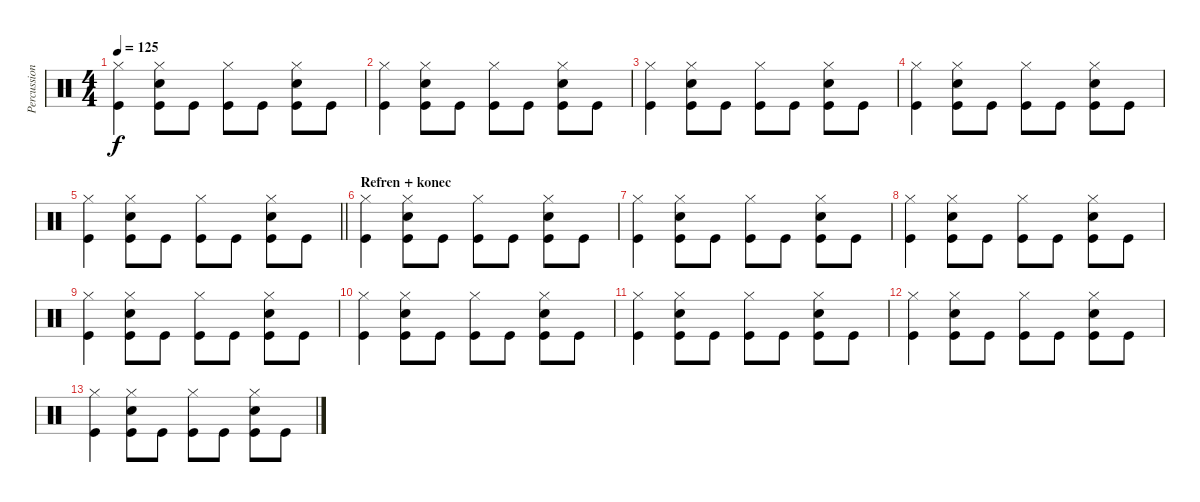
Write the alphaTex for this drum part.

\track ("Percussion" "Percussion") {instrument percussion}
\staff {score}
\articulation defaults
\ts (4 4)
\tempo 125
\clef neutral
\ks c
("Hi-Hat (closed)" "Kick (hit)").4{dy f} ("Hi-Hat (closed)" "Kick (hit)" "Snare (hit) 2").8 "Kick (hit)".8 ("Hi-Hat (closed)" "Kick (hit)").8 "Kick (hit)".8 ("Hi-Hat (closed)" "Kick (hit)" "Snare (hit) 2").8 "Kick (hit)".8 |
("Hi-Hat (closed)" "Kick (hit)").4 ("Hi-Hat (closed)" "Kick (hit)" "Snare (hit) 2").8 "Kick (hit)".8 ("Hi-Hat (closed)" "Kick (hit)").8 "Kick (hit)".8 ("Hi-Hat (closed)" "Kick (hit)" "Snare (hit) 2").8 "Kick (hit)".8 |
("Hi-Hat (closed)" "Kick (hit)").4 ("Hi-Hat (closed)" "Kick (hit)" "Snare (hit) 2").8 "Kick (hit)".8 ("Hi-Hat (closed)" "Kick (hit)").8 "Kick (hit)".8 ("Hi-Hat (closed)" "Kick (hit)" "Snare (hit) 2").8 "Kick (hit)".8 |
("Hi-Hat (closed)" "Kick (hit)").4 ("Hi-Hat (closed)" "Kick (hit)" "Snare (hit) 2").8 "Kick (hit)".8 ("Hi-Hat (closed)" "Kick (hit)").8 "Kick (hit)".8 ("Hi-Hat (closed)" "Kick (hit)" "Snare (hit) 2").8 "Kick (hit)".8 |
\barLineRight lightlight
("Hi-Hat (closed)" "Kick (hit)").4 ("Hi-Hat (closed)" "Kick (hit)" "Snare (hit) 2").8 "Kick (hit)".8 ("Hi-Hat (closed)" "Kick (hit)").8 "Kick (hit)".8 ("Hi-Hat (closed)" "Kick (hit)" "Snare (hit) 2").8 "Kick (hit)".8 |
\section ("" "Refren + konec")
("Hi-Hat (closed)" "Kick (hit)").4 ("Hi-Hat (closed)" "Kick (hit)" "Snare (hit) 2").8 "Kick (hit)".8 ("Hi-Hat (closed)" "Kick (hit)").8 "Kick (hit)".8 ("Hi-Hat (closed)" "Kick (hit)" "Snare (hit) 2").8 "Kick (hit)".8 |
("Hi-Hat (closed)" "Kick (hit)").4 ("Hi-Hat (closed)" "Kick (hit)" "Snare (hit) 2").8 "Kick (hit)".8 ("Hi-Hat (closed)" "Kick (hit)").8 "Kick (hit)".8 ("Hi-Hat (closed)" "Kick (hit)" "Snare (hit) 2").8 "Kick (hit)".8 |
("Hi-Hat (closed)" "Kick (hit)").4 ("Hi-Hat (closed)" "Kick (hit)" "Snare (hit) 2").8 "Kick (hit)".8 ("Hi-Hat (closed)" "Kick (hit)").8 "Kick (hit)".8 ("Hi-Hat (closed)" "Kick (hit)" "Snare (hit) 2").8 "Kick (hit)".8 |
("Hi-Hat (closed)" "Kick (hit)").4 ("Hi-Hat (closed)" "Kick (hit)" "Snare (hit) 2").8 "Kick (hit)".8 ("Hi-Hat (closed)" "Kick (hit)").8 "Kick (hit)".8 ("Hi-Hat (closed)" "Kick (hit)" "Snare (hit) 2").8 "Kick (hit)".8 |
("Hi-Hat (closed)" "Kick (hit)").4 ("Hi-Hat (closed)" "Kick (hit)" "Snare (hit) 2").8 "Kick (hit)".8 ("Hi-Hat (closed)" "Kick (hit)").8 "Kick (hit)".8 ("Hi-Hat (closed)" "Kick (hit)" "Snare (hit) 2").8 "Kick (hit)".8 |
("Hi-Hat (closed)" "Kick (hit)").4 ("Hi-Hat (closed)" "Kick (hit)" "Snare (hit) 2").8 "Kick (hit)".8 ("Hi-Hat (closed)" "Kick (hit)").8 "Kick (hit)".8 ("Hi-Hat (closed)" "Kick (hit)" "Snare (hit) 2").8 "Kick (hit)".8 |
("Hi-Hat (closed)" "Kick (hit)").4 ("Hi-Hat (closed)" "Kick (hit)" "Snare (hit) 2").8 "Kick (hit)".8 ("Hi-Hat (closed)" "Kick (hit)").8 "Kick (hit)".8 ("Hi-Hat (closed)" "Kick (hit)" "Snare (hit) 2").8 "Kick (hit)".8 |
("Hi-Hat (closed)" "Kick (hit)").4 ("Hi-Hat (closed)" "Kick (hit)" "Snare (hit) 2").8 "Kick (hit)".8 ("Hi-Hat (closed)" "Kick (hit)").8 "Kick (hit)".8 ("Hi-Hat (closed)" "Kick (hit)" "Snare (hit) 2").8 "Kick (hit)".8
